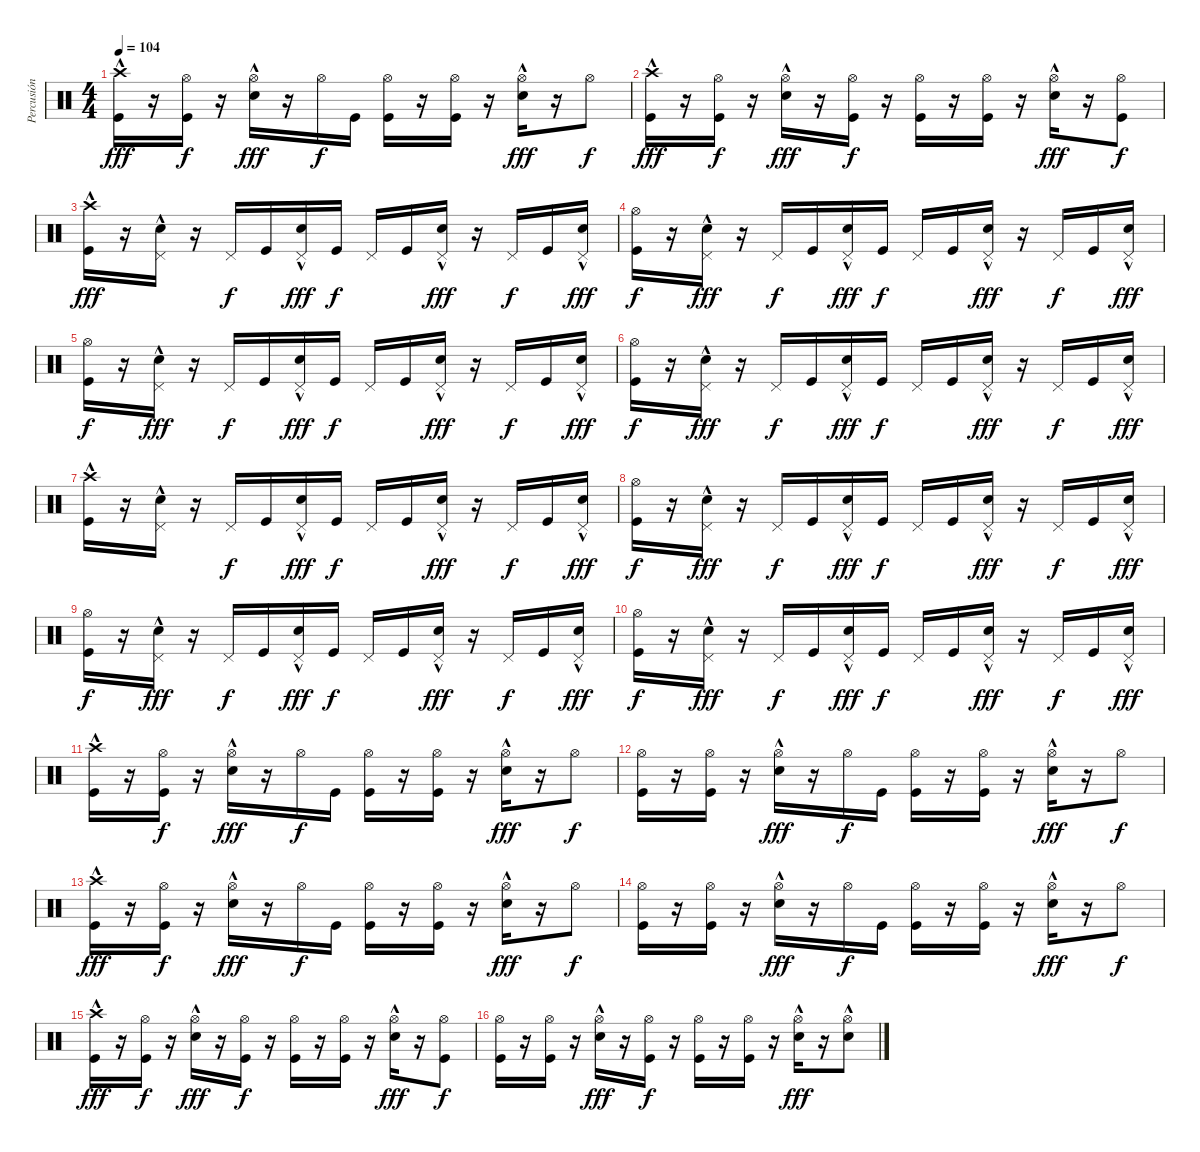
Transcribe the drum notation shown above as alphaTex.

\track ("Percusión" "Percusión") {instrument percussion}
\staff {score}
\articulation defaults
\ts (4 4)
\tempo 104
\clef neutral
\ks c
("Crash high (hit)"{hac} "Kick (hit)").16{dy fff} r.16 ("Hi-Hat (open)" "Kick (hit)").16{dy f} r.16 ("Hi-Hat (open)" "Snare (hit) 2"{hac}).16{dy fff} r.16 "Hi-Hat (open)".16{dy f} "Kick (hit)".16 ("Hi-Hat (open)" "Kick (hit)").16 r.16 ("Hi-Hat (open)" "Kick (hit)").16 r.16 ("Hi-Hat (open)" "Snare (hit) 2"{hac}).16{dy fff} r.16 "Hi-Hat (open)".8{dy f} |
("Crash high (hit)"{hac} "Kick (hit)").16{dy fff} r.16 ("Hi-Hat (open)" "Kick (hit)").16{dy f} r.16 ("Hi-Hat (open)" "Snare (hit) 2"{hac}).16{dy fff} r.16 ("Hi-Hat (open)" "Kick (hit)").16{dy f} r.16 ("Hi-Hat (open)" "Kick (hit)").16 r.16 ("Hi-Hat (open)" "Kick (hit)").16 r.16 ("Hi-Hat (open)" "Snare (hit) 2"{hac}).16{dy fff} r.16 ("Hi-Hat (open)" "Kick (hit)").8{dy f} |
("Crash high (hit)"{hac} "Kick (hit)").16{dy fff} r.16 ("Pedal Hi-Hat (hit)" "Snare (hit) 2"{hac}).16 r.16 "Pedal Hi-Hat (hit)".16{dy f} "Kick (hit)".16 ("Pedal Hi-Hat (hit)" "Snare (hit) 2"{hac}).16{dy fff} "Kick (hit)".16{dy f} "Pedal Hi-Hat (hit)".16 "Kick (hit)".16 ("Pedal Hi-Hat (hit)" "Snare (hit) 2"{hac}).16{dy fff} r.16 "Pedal Hi-Hat (hit)".16{dy f} "Kick (hit)".16 ("Pedal Hi-Hat (hit)" "Snare (hit) 2"{hac}).16{dy fff} |
("Hi-Hat (open)" "Kick (hit)").16{dy f} r.16 ("Pedal Hi-Hat (hit)" "Snare (hit) 2"{hac}).16{dy fff} r.16 "Pedal Hi-Hat (hit)".16{dy f} "Kick (hit)".16 ("Pedal Hi-Hat (hit)" "Snare (hit) 2"{hac}).16{dy fff} "Kick (hit)".16{dy f} "Pedal Hi-Hat (hit)".16 "Kick (hit)".16 ("Pedal Hi-Hat (hit)" "Snare (hit) 2"{hac}).16{dy fff} r.16 "Pedal Hi-Hat (hit)".16{dy f} "Kick (hit)".16 ("Pedal Hi-Hat (hit)" "Snare (hit) 2"{hac}).16{dy fff} |
("Hi-Hat (open)" "Kick (hit)").16{dy f} r.16 ("Pedal Hi-Hat (hit)" "Snare (hit) 2"{hac}).16{dy fff} r.16 "Pedal Hi-Hat (hit)".16{dy f} "Kick (hit)".16 ("Pedal Hi-Hat (hit)" "Snare (hit) 2"{hac}).16{dy fff} "Kick (hit)".16{dy f} "Pedal Hi-Hat (hit)".16 "Kick (hit)".16 ("Pedal Hi-Hat (hit)" "Snare (hit) 2"{hac}).16{dy fff} r.16 "Pedal Hi-Hat (hit)".16{dy f} "Kick (hit)".16 ("Pedal Hi-Hat (hit)" "Snare (hit) 2"{hac}).16{dy fff} |
("Hi-Hat (open)" "Kick (hit)").16{dy f} r.16 ("Pedal Hi-Hat (hit)" "Snare (hit) 2"{hac}).16{dy fff} r.16 "Pedal Hi-Hat (hit)".16{dy f} "Kick (hit)".16 ("Pedal Hi-Hat (hit)" "Snare (hit) 2"{hac}).16{dy fff} "Kick (hit)".16{dy f} "Pedal Hi-Hat (hit)".16 "Kick (hit)".16 ("Pedal Hi-Hat (hit)" "Snare (hit) 2"{hac}).16{dy fff} r.16 "Pedal Hi-Hat (hit)".16{dy f} "Kick (hit)".16 ("Pedal Hi-Hat (hit)" "Snare (hit) 2"{hac}).16{dy fff} |
("Crash high (hit)"{hac} "Kick (hit)").16 r.16 ("Pedal Hi-Hat (hit)" "Snare (hit) 2"{hac}).16 r.16 "Pedal Hi-Hat (hit)".16{dy f} "Kick (hit)".16 ("Pedal Hi-Hat (hit)" "Snare (hit) 2"{hac}).16{dy fff} "Kick (hit)".16{dy f} "Pedal Hi-Hat (hit)".16 "Kick (hit)".16 ("Pedal Hi-Hat (hit)" "Snare (hit) 2"{hac}).16{dy fff} r.16 "Pedal Hi-Hat (hit)".16{dy f} "Kick (hit)".16 ("Pedal Hi-Hat (hit)" "Snare (hit) 2"{hac}).16{dy fff} |
("Hi-Hat (open)" "Kick (hit)").16{dy f} r.16 ("Pedal Hi-Hat (hit)" "Snare (hit) 2"{hac}).16{dy fff} r.16 "Pedal Hi-Hat (hit)".16{dy f} "Kick (hit)".16 ("Pedal Hi-Hat (hit)" "Snare (hit) 2"{hac}).16{dy fff} "Kick (hit)".16{dy f} "Pedal Hi-Hat (hit)".16 "Kick (hit)".16 ("Pedal Hi-Hat (hit)" "Snare (hit) 2"{hac}).16{dy fff} r.16 "Pedal Hi-Hat (hit)".16{dy f} "Kick (hit)".16 ("Pedal Hi-Hat (hit)" "Snare (hit) 2"{hac}).16{dy fff} |
("Hi-Hat (open)" "Kick (hit)").16{dy f} r.16 ("Pedal Hi-Hat (hit)" "Snare (hit) 2"{hac}).16{dy fff} r.16 "Pedal Hi-Hat (hit)".16{dy f} "Kick (hit)".16 ("Pedal Hi-Hat (hit)" "Snare (hit) 2"{hac}).16{dy fff} "Kick (hit)".16{dy f} "Pedal Hi-Hat (hit)".16 "Kick (hit)".16 ("Pedal Hi-Hat (hit)" "Snare (hit) 2"{hac}).16{dy fff} r.16 "Pedal Hi-Hat (hit)".16{dy f} "Kick (hit)".16 ("Pedal Hi-Hat (hit)" "Snare (hit) 2"{hac}).16{dy fff} |
("Hi-Hat (open)" "Kick (hit)").16{dy f} r.16 ("Pedal Hi-Hat (hit)" "Snare (hit) 2"{hac}).16{dy fff} r.16 "Pedal Hi-Hat (hit)".16{dy f} "Kick (hit)".16 ("Pedal Hi-Hat (hit)" "Snare (hit) 2"{hac}).16{dy fff} "Kick (hit)".16{dy f} "Pedal Hi-Hat (hit)".16 "Kick (hit)".16 ("Pedal Hi-Hat (hit)" "Snare (hit) 2"{hac}).16{dy fff} r.16 "Pedal Hi-Hat (hit)".16{dy f} "Kick (hit)".16 ("Pedal Hi-Hat (hit)" "Snare (hit) 2"{hac}).16{dy fff} |
("Crash high (hit)"{hac} "Kick (hit)").16 r.16 ("Hi-Hat (open)" "Kick (hit)").16{dy f} r.16 ("Hi-Hat (open)" "Snare (hit) 2"{hac}).16{dy fff} r.16 "Hi-Hat (open)".16{dy f} "Kick (hit)".16 ("Hi-Hat (open)" "Kick (hit)").16 r.16 ("Hi-Hat (open)" "Kick (hit)").16 r.16 ("Hi-Hat (open)" "Snare (hit) 2"{hac}).16{dy fff} r.16 "Hi-Hat (open)".8{dy f} |
("Hi-Hat (open)" "Kick (hit)").16 r.16 ("Hi-Hat (open)" "Kick (hit)").16 r.16 ("Hi-Hat (open)" "Snare (hit) 2"{hac}).16{dy fff} r.16 "Hi-Hat (open)".16{dy f} "Kick (hit)".16 ("Hi-Hat (open)" "Kick (hit)").16 r.16 ("Hi-Hat (open)" "Kick (hit)").16 r.16 ("Hi-Hat (open)" "Snare (hit) 2"{hac}).16{dy fff} r.16 "Hi-Hat (open)".8{dy f} |
("Crash high (hit)"{hac} "Kick (hit)").16{dy fff} r.16 ("Hi-Hat (open)" "Kick (hit)").16{dy f} r.16 ("Hi-Hat (open)" "Snare (hit) 2"{hac}).16{dy fff} r.16 "Hi-Hat (open)".16{dy f} "Kick (hit)".16 ("Hi-Hat (open)" "Kick (hit)").16 r.16 ("Hi-Hat (open)" "Kick (hit)").16 r.16 ("Hi-Hat (open)" "Snare (hit) 2"{hac}).16{dy fff} r.16 "Hi-Hat (open)".8{dy f} |
("Hi-Hat (open)" "Kick (hit)").16 r.16 ("Hi-Hat (open)" "Kick (hit)").16 r.16 ("Hi-Hat (open)" "Snare (hit) 2"{hac}).16{dy fff} r.16 "Hi-Hat (open)".16{dy f} "Kick (hit)".16 ("Hi-Hat (open)" "Kick (hit)").16 r.16 ("Hi-Hat (open)" "Kick (hit)").16 r.16 ("Hi-Hat (open)" "Snare (hit) 2"{hac}).16{dy fff} r.16 "Hi-Hat (open)".8{dy f} |
("Crash high (hit)"{hac} "Kick (hit)").16{dy fff} r.16 ("Hi-Hat (open)" "Kick (hit)").16{dy f} r.16 ("Hi-Hat (open)" "Snare (hit) 2"{hac}).16{dy fff} r.16 ("Hi-Hat (open)" "Kick (hit)").16{dy f} r.16 ("Hi-Hat (open)" "Kick (hit)").16 r.16 ("Hi-Hat (open)" "Kick (hit)").16 r.16 ("Hi-Hat (open)" "Snare (hit) 2"{hac}).16{dy fff} r.16 ("Hi-Hat (open)" "Kick (hit)").8{dy f} |
("Hi-Hat (open)" "Kick (hit)").16 r.16 ("Hi-Hat (open)" "Kick (hit)").16 r.16 ("Hi-Hat (open)" "Snare (hit) 2"{hac}).16{dy fff} r.16 ("Hi-Hat (open)" "Kick (hit)").16{dy f} r.16 ("Hi-Hat (open)" "Kick (hit)").16 r.16 ("Hi-Hat (open)" "Kick (hit)").16 r.16 ("Hi-Hat (open)" "Snare (hit) 2"{hac}).16{dy fff} r.16 ("Hi-Hat (open)" "Snare (hit) 2"{hac}).8
